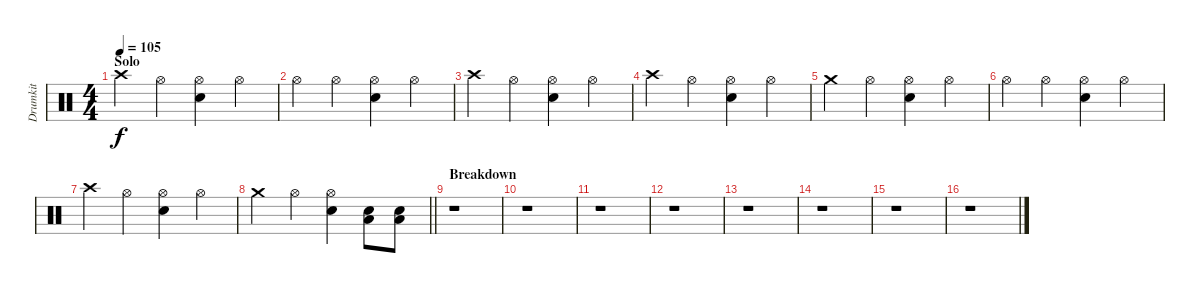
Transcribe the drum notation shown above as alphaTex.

\track ("Drumkit" "Drumkit") {instrument percussion}
\staff {score}
\articulation defaults
\ts (4 4)
\section ("" "Solo")
\tempo 105
\clef neutral
\ks c "Crash high (hit)".4{dy f} "Hi-Hat (open)".4{beam merge}
("Hi-Hat (open)" "Electric Snare (hit)").4 "Hi-Hat (open)".4 |
"Hi-Hat (open)".4 "Hi-Hat (open)".4 ("Hi-Hat (open)" "Electric Snare (hit)").4 "Hi-Hat (open)".4 |
"Crash high (hit)".4{beam merge} "Hi-Hat (open)".4{beam merge} ("Hi-Hat (open)" "Electric Snare (hit)").4 "Hi-Hat (open)".4 |
"Crash high (hit)".4 "Hi-Hat (open)".4 ("Hi-Hat (open)" "Electric Snare (hit)").4{beam merge} "Hi-Hat (open)".4 |
"Crash medium (hit)".4 "Hi-Hat (open)".4{beam merge} ("Hi-Hat (open)" "Electric Snare (hit)").4 "Hi-Hat (open)".4 |
"Hi-Hat (open)".4 "Hi-Hat (open)".4 ("Hi-Hat (open)" "Electric Snare (hit)").4 "Hi-Hat (open)".4 |
"Crash high (hit)".4{beam merge} "Hi-Hat (open)".4{beam merge} ("Hi-Hat (open)" "Electric Snare (hit)").4 "Hi-Hat (open)".4 |
\barLineRight lightlight "Crash medium (hit)".4 "Hi-Hat (open)".4
("Hi-Hat (open)" "Electric Snare (hit)").4{beam merge} ("Low Floor Tom (hit)" "Electric Snare (hit)").8{beam merge} ("Low Floor Tom (hit)" "Electric Snare (hit)").8 |
\section ("" "Breakdown")
r.1 |
r.1 |
r.1 |
r.1 |
r.1 |
r.1 |
r.1 |
r.1
